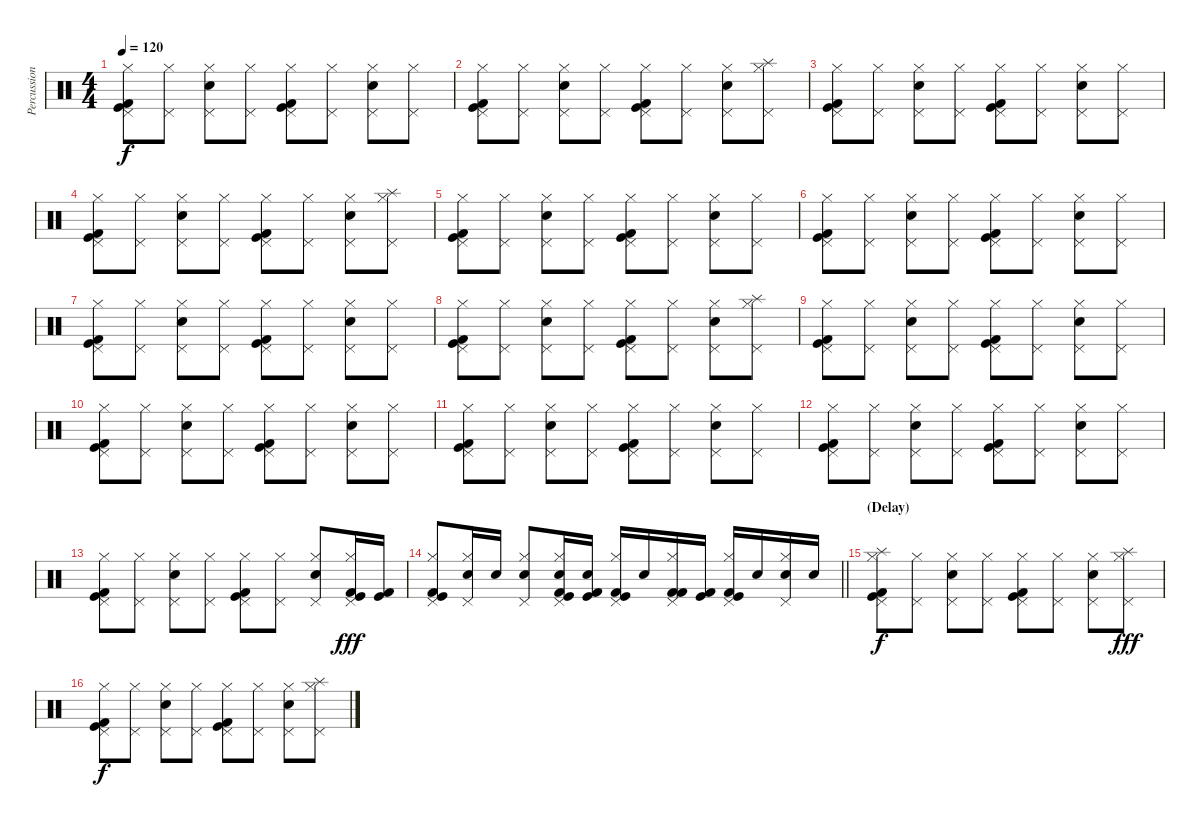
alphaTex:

\track ("Percussion" "Percussion") {instrument percussion}
\staff {score}
\articulation defaults
\ts (4 4)
\tempo 120
\clef neutral
\ks c
("Pedal Hi-Hat (hit)" "Hi-Hat (closed)" "Kick (hit)" "Kick (hit) 2").8{dy f} ("Pedal Hi-Hat (hit)" "Hi-Hat (closed)").8 ("Snare (hit) 2" "Pedal Hi-Hat (hit)" "Hi-Hat (closed)").8 ("Pedal Hi-Hat (hit)" "Hi-Hat (closed)").8 ("Pedal Hi-Hat (hit)" "Hi-Hat (closed)" "Kick (hit)" "Kick (hit) 2").8 ("Pedal Hi-Hat (hit)" "Hi-Hat (closed)").8 ("Snare (hit) 2" "Pedal Hi-Hat (hit)" "Hi-Hat (closed)").8 ("Pedal Hi-Hat (hit)" "Hi-Hat (closed)").8 |
("Pedal Hi-Hat (hit)" "Hi-Hat (closed)" "Kick (hit)" "Kick (hit) 2").8 ("Pedal Hi-Hat (hit)" "Hi-Hat (closed)").8 ("Snare (hit) 2" "Pedal Hi-Hat (hit)" "Hi-Hat (closed)").8 ("Pedal Hi-Hat (hit)" "Hi-Hat (closed)").8 ("Pedal Hi-Hat (hit)" "Hi-Hat (closed)" "Kick (hit)" "Kick (hit) 2").8 ("Pedal Hi-Hat (hit)" "Hi-Hat (closed)").8 ("Snare (hit) 2" "Pedal Hi-Hat (hit)" "Hi-Hat (closed)").8 ("Splash (hit)" "Pedal Hi-Hat (hit)" "Hi-Hat (closed)").8 |
("Pedal Hi-Hat (hit)" "Hi-Hat (closed)" "Kick (hit)" "Kick (hit) 2").8 ("Pedal Hi-Hat (hit)" "Hi-Hat (closed)").8 ("Snare (hit) 2" "Pedal Hi-Hat (hit)" "Hi-Hat (closed)").8 ("Pedal Hi-Hat (hit)" "Hi-Hat (closed)").8 ("Pedal Hi-Hat (hit)" "Hi-Hat (closed)" "Kick (hit)" "Kick (hit) 2").8 ("Pedal Hi-Hat (hit)" "Hi-Hat (closed)").8 ("Snare (hit) 2" "Pedal Hi-Hat (hit)" "Hi-Hat (closed)").8 ("Pedal Hi-Hat (hit)" "Hi-Hat (closed)").8 |
("Pedal Hi-Hat (hit)" "Hi-Hat (closed)" "Kick (hit)" "Kick (hit) 2").8 ("Pedal Hi-Hat (hit)" "Hi-Hat (closed)").8 ("Snare (hit) 2" "Pedal Hi-Hat (hit)" "Hi-Hat (closed)").8 ("Pedal Hi-Hat (hit)" "Hi-Hat (closed)").8 ("Pedal Hi-Hat (hit)" "Hi-Hat (closed)" "Kick (hit)" "Kick (hit) 2").8 ("Pedal Hi-Hat (hit)" "Hi-Hat (closed)").8 ("Snare (hit) 2" "Pedal Hi-Hat (hit)" "Hi-Hat (closed)").8 ("Splash (hit)" "Pedal Hi-Hat (hit)" "Hi-Hat (closed)").8 |
("Pedal Hi-Hat (hit)" "Hi-Hat (closed)" "Kick (hit)" "Kick (hit) 2").8 ("Pedal Hi-Hat (hit)" "Hi-Hat (closed)").8 ("Snare (hit) 2" "Pedal Hi-Hat (hit)" "Hi-Hat (closed)").8 ("Pedal Hi-Hat (hit)" "Hi-Hat (closed)").8 ("Pedal Hi-Hat (hit)" "Hi-Hat (closed)" "Kick (hit)" "Kick (hit) 2").8 ("Pedal Hi-Hat (hit)" "Hi-Hat (closed)").8 ("Snare (hit) 2" "Pedal Hi-Hat (hit)" "Hi-Hat (closed)").8 ("Pedal Hi-Hat (hit)" "Hi-Hat (closed)").8 |
("Pedal Hi-Hat (hit)" "Hi-Hat (closed)" "Kick (hit)" "Kick (hit) 2").8 ("Pedal Hi-Hat (hit)" "Hi-Hat (closed)").8 ("Snare (hit) 2" "Pedal Hi-Hat (hit)" "Hi-Hat (closed)").8 ("Pedal Hi-Hat (hit)" "Hi-Hat (closed)").8 ("Pedal Hi-Hat (hit)" "Hi-Hat (closed)" "Kick (hit)" "Kick (hit) 2").8 ("Pedal Hi-Hat (hit)" "Hi-Hat (closed)").8 ("Snare (hit) 2" "Pedal Hi-Hat (hit)" "Hi-Hat (closed)").8 ("Pedal Hi-Hat (hit)" "Hi-Hat (closed)").8 |
("Pedal Hi-Hat (hit)" "Hi-Hat (closed)" "Kick (hit)" "Kick (hit) 2").8 ("Pedal Hi-Hat (hit)" "Hi-Hat (closed)").8 ("Snare (hit) 2" "Pedal Hi-Hat (hit)" "Hi-Hat (closed)").8 ("Pedal Hi-Hat (hit)" "Hi-Hat (closed)").8 ("Pedal Hi-Hat (hit)" "Hi-Hat (closed)" "Kick (hit)" "Kick (hit) 2").8 ("Pedal Hi-Hat (hit)" "Hi-Hat (closed)").8 ("Snare (hit) 2" "Pedal Hi-Hat (hit)" "Hi-Hat (closed)").8 ("Pedal Hi-Hat (hit)" "Hi-Hat (closed)").8 |
("Pedal Hi-Hat (hit)" "Hi-Hat (closed)" "Kick (hit)" "Kick (hit) 2").8 ("Pedal Hi-Hat (hit)" "Hi-Hat (closed)").8 ("Snare (hit) 2" "Pedal Hi-Hat (hit)" "Hi-Hat (closed)").8 ("Pedal Hi-Hat (hit)" "Hi-Hat (closed)").8 ("Pedal Hi-Hat (hit)" "Hi-Hat (closed)" "Kick (hit)" "Kick (hit) 2").8 ("Pedal Hi-Hat (hit)" "Hi-Hat (closed)").8 ("Snare (hit) 2" "Pedal Hi-Hat (hit)" "Hi-Hat (closed)").8 ("Splash (hit)" "Pedal Hi-Hat (hit)" "Hi-Hat (closed)").8 |
("Pedal Hi-Hat (hit)" "Hi-Hat (closed)" "Kick (hit)" "Kick (hit) 2").8 ("Pedal Hi-Hat (hit)" "Hi-Hat (closed)").8 ("Snare (hit) 2" "Pedal Hi-Hat (hit)" "Hi-Hat (closed)").8 ("Pedal Hi-Hat (hit)" "Hi-Hat (closed)").8 ("Pedal Hi-Hat (hit)" "Hi-Hat (closed)" "Kick (hit)" "Kick (hit) 2").8 ("Pedal Hi-Hat (hit)" "Hi-Hat (closed)").8 ("Snare (hit) 2" "Pedal Hi-Hat (hit)" "Hi-Hat (closed)").8 ("Pedal Hi-Hat (hit)" "Hi-Hat (closed)").8 |
("Pedal Hi-Hat (hit)" "Hi-Hat (closed)" "Kick (hit)" "Kick (hit) 2").8 ("Pedal Hi-Hat (hit)" "Hi-Hat (closed)").8 ("Snare (hit) 2" "Pedal Hi-Hat (hit)" "Hi-Hat (closed)").8 ("Pedal Hi-Hat (hit)" "Hi-Hat (closed)").8 ("Pedal Hi-Hat (hit)" "Hi-Hat (closed)" "Kick (hit)" "Kick (hit) 2").8 ("Pedal Hi-Hat (hit)" "Hi-Hat (closed)").8 ("Snare (hit) 2" "Pedal Hi-Hat (hit)" "Hi-Hat (closed)").8 ("Pedal Hi-Hat (hit)" "Hi-Hat (closed)").8 |
("Pedal Hi-Hat (hit)" "Hi-Hat (closed)" "Kick (hit)" "Kick (hit) 2").8 ("Pedal Hi-Hat (hit)" "Hi-Hat (closed)").8 ("Snare (hit) 2" "Pedal Hi-Hat (hit)" "Hi-Hat (closed)").8 ("Pedal Hi-Hat (hit)" "Hi-Hat (closed)").8 ("Pedal Hi-Hat (hit)" "Hi-Hat (closed)" "Kick (hit)" "Kick (hit) 2").8 ("Pedal Hi-Hat (hit)" "Hi-Hat (closed)").8 ("Snare (hit) 2" "Pedal Hi-Hat (hit)" "Hi-Hat (closed)").8 ("Pedal Hi-Hat (hit)" "Hi-Hat (closed)").8 |
("Pedal Hi-Hat (hit)" "Hi-Hat (closed)" "Kick (hit)" "Kick (hit) 2").8 ("Pedal Hi-Hat (hit)" "Hi-Hat (closed)").8 ("Snare (hit) 2" "Pedal Hi-Hat (hit)" "Hi-Hat (closed)").8 ("Pedal Hi-Hat (hit)" "Hi-Hat (closed)").8 ("Pedal Hi-Hat (hit)" "Hi-Hat (closed)" "Kick (hit)" "Kick (hit) 2").8 ("Pedal Hi-Hat (hit)" "Hi-Hat (closed)").8 ("Snare (hit) 2" "Pedal Hi-Hat (hit)" "Hi-Hat (closed)").8 ("Pedal Hi-Hat (hit)" "Hi-Hat (closed)").8 |
("Pedal Hi-Hat (hit)" "Hi-Hat (closed)" "Kick (hit)" "Kick (hit) 2").8 ("Pedal Hi-Hat (hit)" "Hi-Hat (closed)").8 ("Snare (hit) 2" "Pedal Hi-Hat (hit)" "Hi-Hat (closed)").8 ("Pedal Hi-Hat (hit)" "Hi-Hat (closed)").8 ("Pedal Hi-Hat (hit)" "Hi-Hat (closed)" "Kick (hit)" "Kick (hit) 2").8 ("Pedal Hi-Hat (hit)" "Hi-Hat (closed)").8 ("Snare (hit) 2" "Pedal Hi-Hat (hit)" "Hi-Hat (closed)").8 ("Pedal Hi-Hat (hit)" "Hi-Hat (closed)" "Kick (hit)" "Kick (hit) 2").16{dy fff} ("Kick (hit)" "Kick (hit) 2").16 |
\barLineRight lightlight
("Pedal Hi-Hat (hit)" "Hi-Hat (closed)" "Kick (hit)" "Kick (hit) 2").8 ("Snare (hit) 2" "Pedal Hi-Hat (hit)" "Hi-Hat (closed)").16 "Snare (hit) 2".16 ("Snare (hit) 2" "Pedal Hi-Hat (hit)" "Hi-Hat (closed)").8 ("Snare (hit) 2" "Pedal Hi-Hat (hit)" "Hi-Hat (closed)" "Kick (hit)" "Kick (hit) 2").16 ("Snare (hit) 2" "Kick (hit)" "Kick (hit) 2").16 ("Pedal Hi-Hat (hit)" "Hi-Hat (closed)" "Kick (hit)" "Kick (hit) 2").16 "Snare (hit) 2".16 ("Pedal Hi-Hat (hit)" "Hi-Hat (closed)" "Kick (hit) 2" "Kick (hit) 2").16 ("Kick (hit)" "Kick (hit) 2").16 ("Pedal Hi-Hat (hit)" "Hi-Hat (closed)" "Kick (hit)" "Kick (hit) 2").16 "Snare (hit) 2".16 ("Snare (hit) 2" "Pedal Hi-Hat (hit)" "Hi-Hat (closed)").16 "Snare (hit) 2".16 |
\section ("" "(Delay)")
("Splash (hit)" "Pedal Hi-Hat (hit)" "Hi-Hat (closed)" "Kick (hit)" "Kick (hit) 2").8{dy f} ("Pedal Hi-Hat (hit)" "Hi-Hat (closed)").8 ("Snare (hit) 2" "Pedal Hi-Hat (hit)" "Hi-Hat (closed)").8 ("Pedal Hi-Hat (hit)" "Hi-Hat (closed)").8 ("Pedal Hi-Hat (hit)" "Hi-Hat (closed)" "Kick (hit)" "Kick (hit) 2").8 ("Pedal Hi-Hat (hit)" "Hi-Hat (closed)").8 ("Snare (hit) 2" "Pedal Hi-Hat (hit)" "Hi-Hat (closed)").8 ("Splash (hit)" "Pedal Hi-Hat (hit)" "Hi-Hat (closed)").8{dy fff} |
("Pedal Hi-Hat (hit)" "Hi-Hat (closed)" "Kick (hit)" "Kick (hit) 2").8{dy f} ("Pedal Hi-Hat (hit)" "Hi-Hat (closed)").8 ("Snare (hit) 2" "Pedal Hi-Hat (hit)" "Hi-Hat (closed)").8 ("Pedal Hi-Hat (hit)" "Hi-Hat (closed)").8 ("Pedal Hi-Hat (hit)" "Hi-Hat (closed)" "Kick (hit)" "Kick (hit) 2").8 ("Pedal Hi-Hat (hit)" "Hi-Hat (closed)").8 ("Snare (hit) 2" "Pedal Hi-Hat (hit)" "Hi-Hat (closed)").8 ("Splash (hit)" "Pedal Hi-Hat (hit)" "Hi-Hat (closed)").8
